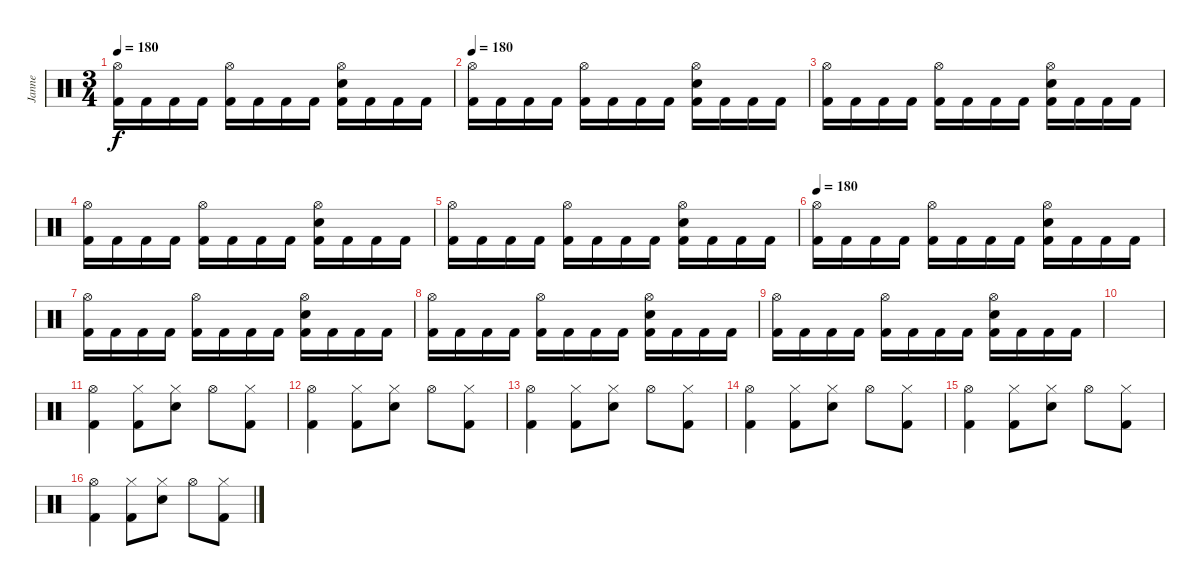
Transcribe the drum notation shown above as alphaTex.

\track ("Janne" "Janne") {instrument percussion}
\staff {score}
\articulation defaults
\ts (3 4)
\tempo 180
\clef neutral
\ks c
("Hi-Hat (open)" "Kick (hit) 2").16{dy f} "Kick (hit) 2".16 "Kick (hit) 2".16 "Kick (hit) 2".16 ("Hi-Hat (open)" "Kick (hit) 2").16 "Kick (hit) 2".16 "Kick (hit) 2".16 "Kick (hit) 2".16 ("Hi-Hat (open)" "Electric Snare (hit)" "Kick (hit) 2").16 "Kick (hit) 2".16 "Kick (hit) 2".16 "Kick (hit) 2".16 |
\tempo 180
("Hi-Hat (open)" "Kick (hit) 2").16 "Kick (hit) 2".16 "Kick (hit) 2".16 "Kick (hit) 2".16 ("Hi-Hat (open)" "Kick (hit) 2").16 "Kick (hit) 2".16 "Kick (hit) 2".16 "Kick (hit) 2".16 ("Hi-Hat (open)" "Electric Snare (hit)" "Kick (hit) 2").16 "Kick (hit) 2".16 "Kick (hit) 2".16 "Kick (hit) 2".16 |
("Hi-Hat (open)" "Kick (hit) 2").16 "Kick (hit) 2".16 "Kick (hit) 2".16 "Kick (hit) 2".16 ("Hi-Hat (open)" "Kick (hit) 2").16 "Kick (hit) 2".16 "Kick (hit) 2".16 "Kick (hit) 2".16 ("Hi-Hat (open)" "Electric Snare (hit)" "Kick (hit) 2").16 "Kick (hit) 2".16 "Kick (hit) 2".16 "Kick (hit) 2".16 |
("Hi-Hat (open)" "Kick (hit) 2").16 "Kick (hit) 2".16 "Kick (hit) 2".16 "Kick (hit) 2".16 ("Hi-Hat (open)" "Kick (hit) 2").16 "Kick (hit) 2".16 "Kick (hit) 2".16 "Kick (hit) 2".16 ("Hi-Hat (open)" "Electric Snare (hit)" "Kick (hit) 2").16 "Kick (hit) 2".16 "Kick (hit) 2".16 "Kick (hit) 2".16 |
("Hi-Hat (open)" "Kick (hit) 2").16 "Kick (hit) 2".16 "Kick (hit) 2".16 "Kick (hit) 2".16 ("Hi-Hat (open)" "Kick (hit) 2").16 "Kick (hit) 2".16 "Kick (hit) 2".16 "Kick (hit) 2".16 ("Hi-Hat (open)" "Electric Snare (hit)" "Kick (hit) 2").16 "Kick (hit) 2".16 "Kick (hit) 2".16 "Kick (hit) 2".16 |
\tempo 180
("Hi-Hat (open)" "Kick (hit) 2").16 "Kick (hit) 2".16 "Kick (hit) 2".16 "Kick (hit) 2".16 ("Hi-Hat (open)" "Kick (hit) 2").16 "Kick (hit) 2".16 "Kick (hit) 2".16 "Kick (hit) 2".16 ("Hi-Hat (open)" "Electric Snare (hit)" "Kick (hit) 2").16 "Kick (hit) 2".16 "Kick (hit) 2".16 "Kick (hit) 2".16 |
("Hi-Hat (open)" "Kick (hit) 2").16 "Kick (hit) 2".16 "Kick (hit) 2".16 "Kick (hit) 2".16 ("Hi-Hat (open)" "Kick (hit) 2").16 "Kick (hit) 2".16 "Kick (hit) 2".16 "Kick (hit) 2".16 ("Hi-Hat (open)" "Electric Snare (hit)" "Kick (hit) 2").16 "Kick (hit) 2".16 "Kick (hit) 2".16 "Kick (hit) 2".16 |
("Hi-Hat (open)" "Kick (hit) 2").16 "Kick (hit) 2".16 "Kick (hit) 2".16 "Kick (hit) 2".16 ("Hi-Hat (open)" "Kick (hit) 2").16 "Kick (hit) 2".16 "Kick (hit) 2".16 "Kick (hit) 2".16 ("Hi-Hat (open)" "Electric Snare (hit)" "Kick (hit) 2").16 "Kick (hit) 2".16 "Kick (hit) 2".16 "Kick (hit) 2".16 |
("Hi-Hat (open)" "Kick (hit) 2").16 "Kick (hit) 2".16 "Kick (hit) 2".16 "Kick (hit) 2".16 ("Hi-Hat (open)" "Kick (hit) 2").16 "Kick (hit) 2".16 "Kick (hit) 2".16 "Kick (hit) 2".16 ("Hi-Hat (open)" "Electric Snare (hit)" "Kick (hit) 2").16 "Kick (hit) 2".16 "Kick (hit) 2".16 "Kick (hit) 2".16 |
|
("Hi-Hat (open)" "Kick (hit) 2").4 ("Hi-Hat (closed)" "Kick (hit) 2").8 ("Hi-Hat (closed)" "Electric Snare (hit)").8 "Hi-Hat (open)".8 ("Hi-Hat (closed)" "Kick (hit) 2").8 |
("Hi-Hat (open)" "Kick (hit) 2").4 ("Hi-Hat (closed)" "Kick (hit) 2").8 ("Hi-Hat (closed)" "Electric Snare (hit)").8 "Hi-Hat (open)".8 ("Hi-Hat (closed)" "Kick (hit) 2").8 |
("Hi-Hat (open)" "Kick (hit) 2").4 ("Hi-Hat (closed)" "Kick (hit) 2").8 ("Hi-Hat (closed)" "Electric Snare (hit)").8 "Hi-Hat (open)".8 ("Hi-Hat (closed)" "Kick (hit) 2").8 |
("Hi-Hat (open)" "Kick (hit) 2").4 ("Hi-Hat (closed)" "Kick (hit) 2").8 ("Hi-Hat (closed)" "Electric Snare (hit)").8 "Hi-Hat (open)".8 ("Hi-Hat (closed)" "Kick (hit) 2").8 |
("Hi-Hat (open)" "Kick (hit) 2").4 ("Hi-Hat (closed)" "Kick (hit) 2").8 ("Hi-Hat (closed)" "Electric Snare (hit)").8 "Hi-Hat (open)".8 ("Hi-Hat (closed)" "Kick (hit) 2").8 |
("Hi-Hat (open)" "Kick (hit) 2").4 ("Hi-Hat (closed)" "Kick (hit) 2").8 ("Hi-Hat (closed)" "Electric Snare (hit)").8 "Hi-Hat (open)".8 ("Hi-Hat (closed)" "Kick (hit) 2").8
